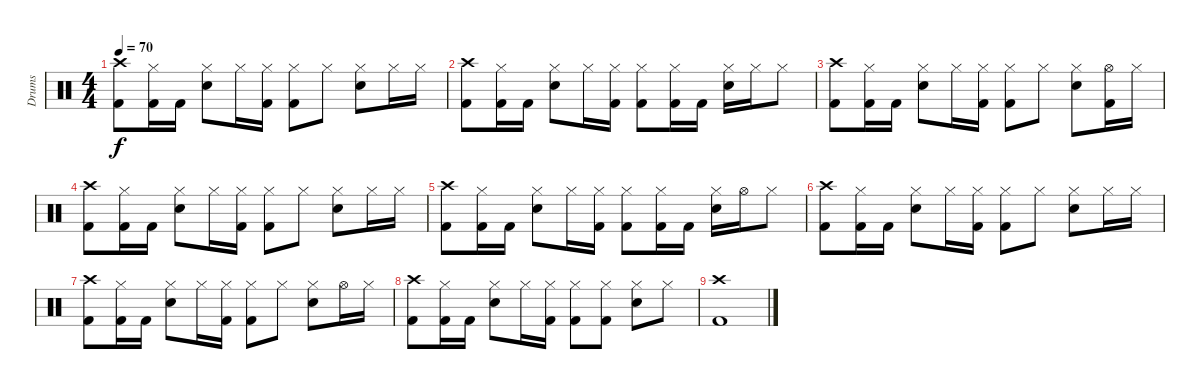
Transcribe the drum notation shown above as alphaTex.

\track ("Drums" "Drums") {instrument percussion}
\staff {score}
\articulation defaults
\ts (4 4)
\tempo 70
\clef neutral
\ks c
("Crash high (hit)" "Kick (hit) 2").8{dy f} ("Hi-Hat (closed)" "Kick (hit) 2").16 "Kick (hit) 2".16 ("Hi-Hat (closed)" "Electric Snare (hit)").8 "Hi-Hat (closed)".16 ("Hi-Hat (closed)" "Kick (hit) 2").16 ("Hi-Hat (closed)" "Kick (hit) 2").8 "Hi-Hat (closed)".8 ("Hi-Hat (closed)" "Electric Snare (hit)").8 "Hi-Hat (closed)".16 "Hi-Hat (closed)".16 |
("Crash high (hit)" "Kick (hit) 2").8 ("Hi-Hat (closed)" "Kick (hit) 2").16 "Kick (hit) 2".16 ("Hi-Hat (closed)" "Electric Snare (hit)").8 "Hi-Hat (closed)".16 ("Hi-Hat (closed)" "Kick (hit) 2").16 ("Hi-Hat (closed)" "Kick (hit) 2").8 ("Hi-Hat (closed)" "Kick (hit) 2").16 "Kick (hit) 2".16 ("Hi-Hat (closed)" "Electric Snare (hit)").16 "Hi-Hat (closed)".16 "Hi-Hat (closed)".8 |
("Crash high (hit)" "Kick (hit) 2").8 ("Hi-Hat (closed)" "Kick (hit) 2").16 "Kick (hit) 2".16 ("Hi-Hat (closed)" "Electric Snare (hit)").8 "Hi-Hat (closed)".16 ("Hi-Hat (closed)" "Kick (hit) 2").16 ("Hi-Hat (closed)" "Kick (hit) 2").8 "Hi-Hat (closed)".8 ("Hi-Hat (closed)" "Electric Snare (hit)").8 ("Hi-Hat (open)" "Kick (hit) 2").16 "Hi-Hat (closed)".16 |
("Crash high (hit)" "Kick (hit) 2").8 ("Hi-Hat (closed)" "Kick (hit) 2").16 "Kick (hit) 2".16 ("Hi-Hat (closed)" "Electric Snare (hit)").8 "Hi-Hat (closed)".16 ("Hi-Hat (closed)" "Kick (hit) 2").16 ("Hi-Hat (closed)" "Kick (hit) 2").8 "Hi-Hat (closed)".8 ("Hi-Hat (closed)" "Electric Snare (hit)").8 "Hi-Hat (closed)".16 "Hi-Hat (closed)".16 |
("Crash high (hit)" "Kick (hit) 2").8 ("Hi-Hat (closed)" "Kick (hit) 2").16 "Kick (hit) 2".16 ("Hi-Hat (closed)" "Electric Snare (hit)").8 "Hi-Hat (closed)".16 ("Hi-Hat (closed)" "Kick (hit) 2").16 ("Hi-Hat (closed)" "Kick (hit) 2").8 ("Hi-Hat (closed)" "Kick (hit) 2").16 "Kick (hit) 2".16 ("Hi-Hat (closed)" "Electric Snare (hit)").16 "Hi-Hat (open)".16 "Hi-Hat (closed)".8 |
("Crash high (hit)" "Kick (hit) 2").8 ("Hi-Hat (closed)" "Kick (hit) 2").16 "Kick (hit) 2".16 ("Hi-Hat (closed)" "Electric Snare (hit)").8 "Hi-Hat (closed)".16 ("Hi-Hat (closed)" "Kick (hit) 2").16 ("Hi-Hat (closed)" "Kick (hit) 2").8 "Hi-Hat (closed)".8 ("Hi-Hat (closed)" "Electric Snare (hit)").8 "Hi-Hat (closed)".16 "Hi-Hat (closed)".16 |
("Crash high (hit)" "Kick (hit) 2").8 ("Hi-Hat (closed)" "Kick (hit) 2").16 "Kick (hit) 2".16 ("Hi-Hat (closed)" "Electric Snare (hit)").8 "Hi-Hat (closed)".16 ("Hi-Hat (closed)" "Kick (hit) 2").16 ("Hi-Hat (closed)" "Kick (hit) 2").8 "Hi-Hat (closed)".8 ("Hi-Hat (closed)" "Electric Snare (hit)").8 "Hi-Hat (open)".16 "Hi-Hat (closed)".16 |
("Crash high (hit)" "Kick (hit) 2").8 ("Hi-Hat (closed)" "Kick (hit) 2").16 "Kick (hit) 2".16 ("Hi-Hat (closed)" "Electric Snare (hit)").8 "Hi-Hat (closed)".16 ("Hi-Hat (closed)" "Kick (hit) 2").16 ("Hi-Hat (closed)" "Kick (hit) 2").8 ("Hi-Hat (closed)" "Kick (hit) 2").8 ("Hi-Hat (closed)" "Electric Snare (hit)").8 "Hi-Hat (closed)".8 |
("Crash high (hit)" "Kick (hit) 2").1
